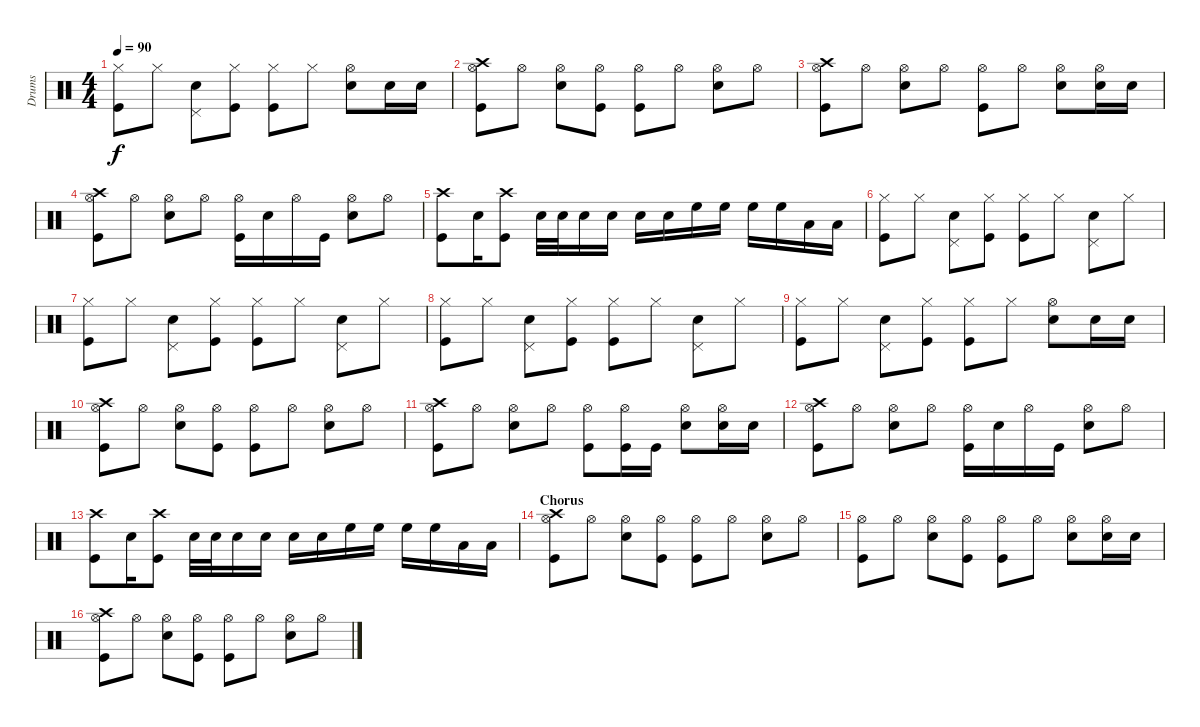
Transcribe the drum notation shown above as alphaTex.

\track ("Drums" "Drums") {instrument percussion}
\staff {score}
\articulation defaults
\ts (4 4)
\tempo 90
\clef neutral
\ks c
("Hi-Hat (closed)" "Kick (hit)").8{dy f} "Hi-Hat (closed)".8 ("Pedal Hi-Hat (hit)" "Snare (hit) 2").8 ("Hi-Hat (closed)" "Kick (hit)").8 ("Hi-Hat (closed)" "Kick (hit)").8 "Hi-Hat (closed)".8 ("Hi-Hat (open)" "Snare (hit) 2").8 "Snare (hit) 2".16 "Snare (hit) 2".16 |
("Hi-Hat (open)" "Crash high (hit)" "Kick (hit)").8 "Hi-Hat (open)".8 ("Hi-Hat (open)" "Snare (hit) 2").8 ("Hi-Hat (open)" "Kick (hit)").8 ("Hi-Hat (open)" "Kick (hit)").8 "Hi-Hat (open)".8 ("Hi-Hat (open)" "Snare (hit) 2").8 "Hi-Hat (open)".8 |
("Hi-Hat (open)" "Crash high (hit)" "Kick (hit)").8 "Hi-Hat (open)".8 ("Hi-Hat (open)" "Snare (hit) 2").8 "Hi-Hat (open)".8 ("Hi-Hat (open)" "Kick (hit)").8 "Hi-Hat (open)".8 ("Hi-Hat (open)" "Snare (hit) 2").8 ("Hi-Hat (open)" "Snare (hit) 2").16 "Snare (hit) 2".16 |
("Hi-Hat (open)" "Crash high (hit)" "Kick (hit)").8 "Hi-Hat (open)".8 ("Hi-Hat (open)" "Snare (hit) 2").8 "Hi-Hat (open)".8 ("Hi-Hat (open)" "Kick (hit)").16 "Snare (hit) 2".16 "Hi-Hat (open)".16 "Kick (hit)".16 ("Hi-Hat (open)" "Snare (hit) 2").8 "Hi-Hat (open)".8 |
("Crash high (hit)" "Kick (hit)").8 "Snare (hit) 2".16 ("Crash high (hit)" "Kick (hit)").8 "Snare (hit) 2".32 "Snare (hit) 2".32 "Snare (hit) 2".16 "Snare (hit) 2".16 "Snare (hit) 2".16 "Snare (hit) 2".16 "High Floor Tom (hit)".16 "High Floor Tom (hit)".16 "High Floor Tom (hit)".16 "High Floor Tom (hit)".16 "Low Tom (hit)".16 "Low Tom (hit)".16 |
("Hi-Hat (closed)" "Kick (hit)").8 "Hi-Hat (closed)".8 ("Pedal Hi-Hat (hit)" "Snare (hit) 2").8 ("Hi-Hat (closed)" "Kick (hit)").8 ("Hi-Hat (closed)" "Kick (hit)").8 "Hi-Hat (closed)".8 ("Pedal Hi-Hat (hit)" "Snare (hit) 2").8 "Hi-Hat (closed)".8 |
("Hi-Hat (closed)" "Kick (hit)").8 "Hi-Hat (closed)".8 ("Pedal Hi-Hat (hit)" "Snare (hit) 2").8 ("Hi-Hat (closed)" "Kick (hit)").8 ("Hi-Hat (closed)" "Kick (hit)").8 "Hi-Hat (closed)".8 ("Pedal Hi-Hat (hit)" "Snare (hit) 2").8 "Hi-Hat (closed)".8 |
("Hi-Hat (closed)" "Kick (hit)").8 "Hi-Hat (closed)".8 ("Pedal Hi-Hat (hit)" "Snare (hit) 2").8 ("Hi-Hat (closed)" "Kick (hit)").8 ("Hi-Hat (closed)" "Kick (hit)").8 "Hi-Hat (closed)".8 ("Pedal Hi-Hat (hit)" "Snare (hit) 2").8 "Hi-Hat (closed)".8 |
("Hi-Hat (closed)" "Kick (hit)").8 "Hi-Hat (closed)".8 ("Pedal Hi-Hat (hit)" "Snare (hit) 2").8 ("Hi-Hat (closed)" "Kick (hit)").8 ("Hi-Hat (closed)" "Kick (hit)").8 "Hi-Hat (closed)".8 ("Hi-Hat (open)" "Snare (hit) 2").8 "Snare (hit) 2".16 "Snare (hit) 2".16 |
("Hi-Hat (open)" "Crash high (hit)" "Kick (hit)").8 "Hi-Hat (open)".8 ("Hi-Hat (open)" "Snare (hit) 2").8 ("Hi-Hat (open)" "Kick (hit)").8 ("Hi-Hat (open)" "Kick (hit)").8 "Hi-Hat (open)".8 ("Hi-Hat (open)" "Snare (hit) 2").8 "Hi-Hat (open)".8 |
("Hi-Hat (open)" "Crash high (hit)" "Kick (hit)").8 "Hi-Hat (open)".8 ("Hi-Hat (open)" "Snare (hit) 2").8 "Hi-Hat (open)".8 ("Hi-Hat (open)" "Kick (hit)").8 ("Hi-Hat (open)" "Kick (hit)").16 "Kick (hit)".16 ("Hi-Hat (open)" "Snare (hit) 2").8 ("Hi-Hat (open)" "Snare (hit) 2").16 "Snare (hit) 2".16 |
("Hi-Hat (open)" "Crash high (hit)" "Kick (hit)").8 "Hi-Hat (open)".8 ("Hi-Hat (open)" "Snare (hit) 2").8 "Hi-Hat (open)".8 ("Hi-Hat (open)" "Kick (hit)").16 "Snare (hit) 2".16 "Hi-Hat (open)".16 "Kick (hit)".16 ("Hi-Hat (open)" "Snare (hit) 2").8 "Hi-Hat (open)".8 |
("Crash high (hit)" "Kick (hit)").8 "Snare (hit) 2".16 ("Crash high (hit)" "Kick (hit)").8 "Snare (hit) 2".32 "Snare (hit) 2".32 "Snare (hit) 2".16 "Snare (hit) 2".16 "Snare (hit) 2".16 "Snare (hit) 2".16 "High Floor Tom (hit)".16 "High Floor Tom (hit)".16 "High Floor Tom (hit)".16 "High Floor Tom (hit)".16 "Low Tom (hit)".16 "Low Tom (hit)".16 |
\section ("" "Chorus")
("Hi-Hat (open)" "Crash high (hit)" "Kick (hit)").8 "Hi-Hat (open)".8 ("Hi-Hat (open)" "Snare (hit) 2").8 ("Hi-Hat (open)" "Kick (hit)").8 ("Hi-Hat (open)" "Kick (hit)").8 "Hi-Hat (open)".8 ("Hi-Hat (open)" "Snare (hit) 2").8 "Hi-Hat (open)".8 |
("Hi-Hat (open)" "Kick (hit)").8 "Hi-Hat (open)".8 ("Hi-Hat (open)" "Snare (hit) 2").8 ("Hi-Hat (open)" "Kick (hit)").8 ("Hi-Hat (open)" "Kick (hit)").8 "Hi-Hat (open)".8 ("Hi-Hat (open)" "Snare (hit) 2").8 ("Hi-Hat (open)" "Snare (hit) 2").16 "Snare (hit) 2".16 |
("Hi-Hat (open)" "Crash high (hit)" "Kick (hit)").8 "Hi-Hat (open)".8 ("Hi-Hat (open)" "Snare (hit) 2").8 ("Hi-Hat (open)" "Kick (hit)").8 ("Hi-Hat (open)" "Kick (hit)").8 "Hi-Hat (open)".8 ("Hi-Hat (open)" "Snare (hit) 2").8 "Hi-Hat (open)".8
